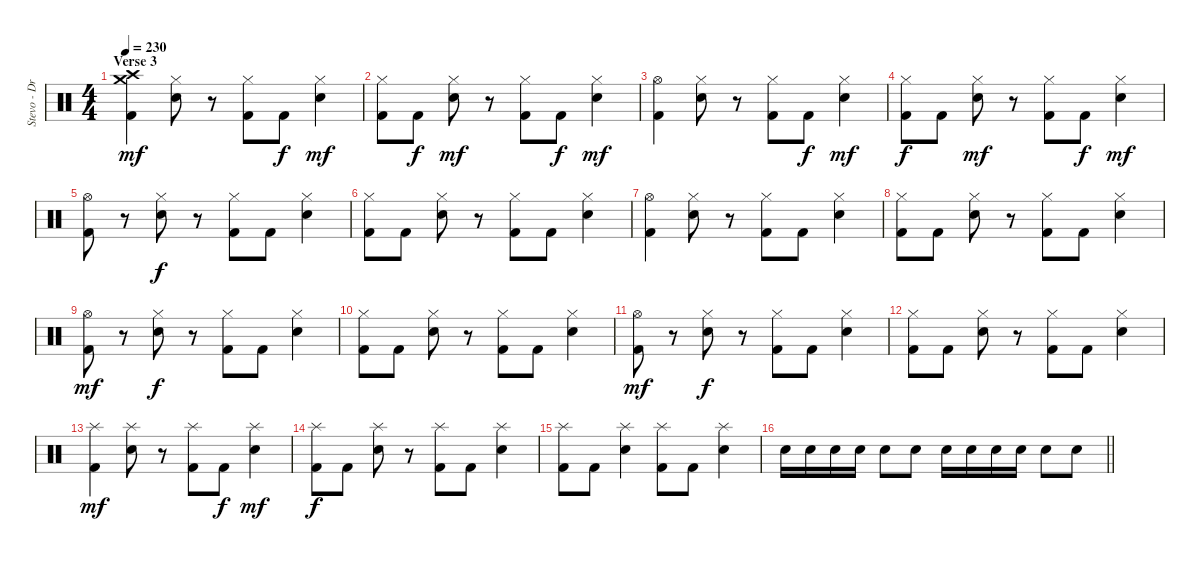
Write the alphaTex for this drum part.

\track ("Stevo - Drums" "Stevo - Dr") {instrument percussion}
\staff {score}
\articulation defaults
\ts (4 4)
\section ("" "Verse 3")
\tempo 230
\clef neutral
\ks c
("Crash high (hit)" "Crash medium (hit)" "Kick (hit) 2").4{dy mf} ("Hi-Hat (closed)" "Electric Snare (hit)").8 r.8 ("Hi-Hat (closed)" "Kick (hit) 2").8 "Kick (hit) 2".8{dy f} ("Hi-Hat (closed)" "Electric Snare (hit)").4{dy mf} |
("Hi-Hat (closed)" "Kick (hit) 2").8 "Kick (hit) 2".8{dy f} ("Hi-Hat (closed)" "Electric Snare (hit)").8{dy mf} r.8 ("Hi-Hat (closed)" "Kick (hit) 2").8 "Kick (hit) 2".8{dy f} ("Hi-Hat (closed)" "Electric Snare (hit)").4{dy mf} |
("Hi-Hat (open)" "Kick (hit) 2").4 ("Hi-Hat (closed)" "Electric Snare (hit)").8 r.8 ("Hi-Hat (closed)" "Kick (hit) 2").8 "Kick (hit) 2".8{dy f} ("Hi-Hat (closed)" "Electric Snare (hit)").4{dy mf} |
("Hi-Hat (closed)" "Kick (hit) 2").8{dy f} "Kick (hit) 2".8 ("Hi-Hat (closed)" "Electric Snare (hit)").8{dy mf} r.8 ("Hi-Hat (closed)" "Kick (hit) 2").8 "Kick (hit) 2".8{dy f} ("Hi-Hat (closed)" "Electric Snare (hit)").4{dy mf} |
("Hi-Hat (open)" "Kick (hit) 2").8 r.8 ("Hi-Hat (closed)" "Electric Snare (hit)").8{dy f} r.8 ("Hi-Hat (closed)" "Kick (hit) 2").8 "Kick (hit) 2".8 ("Hi-Hat (closed)" "Electric Snare (hit)").4 |
("Hi-Hat (closed)" "Kick (hit) 2").8 "Kick (hit) 2".8 ("Hi-Hat (closed)" "Electric Snare (hit)").8 r.8 ("Hi-Hat (closed)" "Kick (hit) 2").8 "Kick (hit) 2".8 ("Hi-Hat (closed)" "Electric Snare (hit)").4 |
("Hi-Hat (open)" "Kick (hit) 2").4 ("Hi-Hat (closed)" "Electric Snare (hit)").8 r.8 ("Hi-Hat (closed)" "Kick (hit) 2").8 "Kick (hit) 2".8 ("Hi-Hat (closed)" "Electric Snare (hit)").4 |
("Hi-Hat (closed)" "Kick (hit) 2").8 "Kick (hit) 2".8 ("Hi-Hat (closed)" "Electric Snare (hit)").8 r.8 ("Hi-Hat (closed)" "Kick (hit) 2").8 "Kick (hit) 2".8 ("Hi-Hat (closed)" "Electric Snare (hit)").4 |
("Hi-Hat (open)" "Kick (hit) 2").8{dy mf} r.8 ("Hi-Hat (closed)" "Electric Snare (hit)").8{dy f} r.8 ("Hi-Hat (closed)" "Kick (hit) 2").8 "Kick (hit) 2".8 ("Hi-Hat (closed)" "Electric Snare (hit)").4 |
("Hi-Hat (closed)" "Kick (hit) 2").8 "Kick (hit) 2".8 ("Hi-Hat (closed)" "Electric Snare (hit)").8 r.8 ("Hi-Hat (closed)" "Kick (hit) 2").8 "Kick (hit) 2".8 ("Hi-Hat (closed)" "Electric Snare (hit)").4 |
("Hi-Hat (open)" "Kick (hit) 2").8{dy mf} r.8 ("Hi-Hat (closed)" "Electric Snare (hit)").8{dy f} r.8 ("Hi-Hat (closed)" "Kick (hit) 2").8 "Kick (hit) 2".8 ("Hi-Hat (closed)" "Electric Snare (hit)").4 |
("Hi-Hat (closed)" "Kick (hit) 2").8 "Kick (hit) 2".8 ("Hi-Hat (closed)" "Electric Snare (hit)").8 r.8 ("Hi-Hat (closed)" "Kick (hit) 2").8 "Kick (hit) 2".8 ("Hi-Hat (closed)" "Electric Snare (hit)").4 |
("Splash (hit)" "Kick (hit) 2").4{dy mf} ("Splash (hit)" "Electric Snare (hit)").8 r.8 ("Splash (hit)" "Kick (hit) 2").8 "Kick (hit) 2".8{dy f} ("Splash (hit)" "Electric Snare (hit)").4{dy mf} |
("Splash (hit)" "Kick (hit) 2").8{dy f} "Kick (hit) 2".8 ("Splash (hit)" "Electric Snare (hit)").8 r.8 ("Splash (hit)" "Kick (hit) 2").8 "Kick (hit) 2".8 ("Splash (hit)" "Electric Snare (hit)").4 |
("Splash (hit)" "Kick (hit) 2").8 "Kick (hit) 2".8 ("Splash (hit)" "Electric Snare (hit)").4 ("Splash (hit)" "Kick (hit) 2").8 "Kick (hit) 2".8 ("Splash (hit)" "Electric Snare (hit)").4 |
\barLineRight lightlight "Electric Snare (hit)".16 "Electric Snare (hit)".16 "Electric Snare (hit)".16 "Electric Snare (hit)".16 "Electric Snare (hit)".8 "Electric Snare (hit)".8 "Electric Snare (hit)".16 "Electric Snare (hit)".16 "Electric Snare (hit)".16 "Electric Snare (hit)".16 "Electric Snare (hit)".8 "Electric Snare (hit)".8
